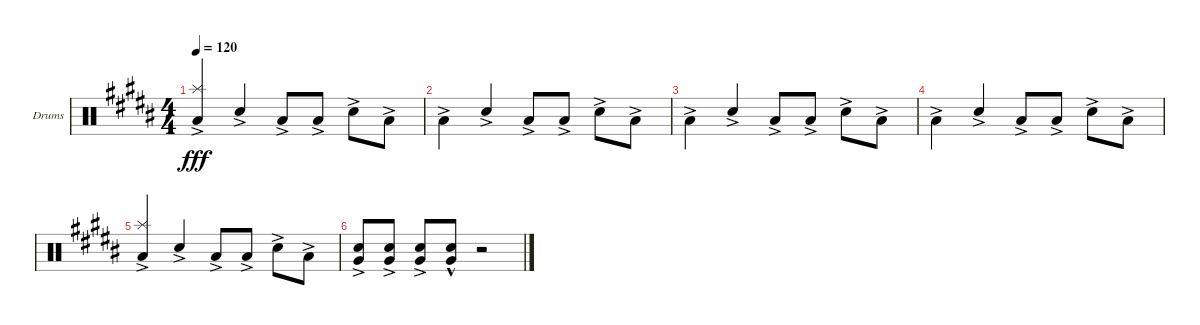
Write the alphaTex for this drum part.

\defaultSystemsLayout 4
\bracketExtendMode groupsimilarinstruments
\firstSystemTrackNameOrientation horizontal
\otherSystemsTrackNameOrientation horizontal
\track ("Drumkit" "Drums") {instrument percussion}
\staff {score}
\articulation defaults
\ts (4 4)
\tempo 120
\clef neutral
\ks b
("Low Tom (hit)"{ac} "Splash (hit)").4{dy fff} "Snare (hit) 2"{ac}.4{beam invert} "Low Tom (hit)"{ac}.8 "Low Tom (hit)"{ac}.8 "Snare (hit) 2"{ac}.8 "Low Tom (hit)"{ac}.8 |
"Low Tom (hit)"{ac}.4 "Snare (hit) 2"{ac}.4{beam invert} "Low Tom (hit)"{ac}.8 "Low Tom (hit)"{ac}.8 "Snare (hit) 2"{ac}.8 "Low Tom (hit)"{ac}.8 |
"Low Tom (hit)"{ac}.4 "Snare (hit) 2"{ac}.4{beam invert} "Low Tom (hit)"{ac}.8 "Low Tom (hit)"{ac}.8 "Snare (hit) 2"{ac}.8 "Low Tom (hit)"{ac}.8 |
"Low Tom (hit)"{ac}.4 "Snare (hit) 2"{ac}.4{beam invert} "Low Tom (hit)"{ac}.8 "Low Tom (hit)"{ac}.8 "Snare (hit) 2"{ac}.8 "Low Tom (hit)"{ac}.8 |
("Low Tom (hit)"{ac} "Splash (hit)").4 "Snare (hit) 2"{ac}.4{beam invert} "Low Tom (hit)"{ac}.8 "Low Tom (hit)"{ac}.8 "Snare (hit) 2"{ac}.8 "Low Tom (hit)"{ac}.8 |
("Snare (hit) 2"{ac} "Very Low Tom (hit)"{ac}).8 ("Snare (hit) 2"{ac} "Very Low Tom (hit)"{ac}).8 ("Snare (hit) 2"{ac} "Very Low Tom (hit)"{ac}).8 ("Snare (hit) 2"{hac} "Very Low Tom (hit)"{hac}).8 r.2
